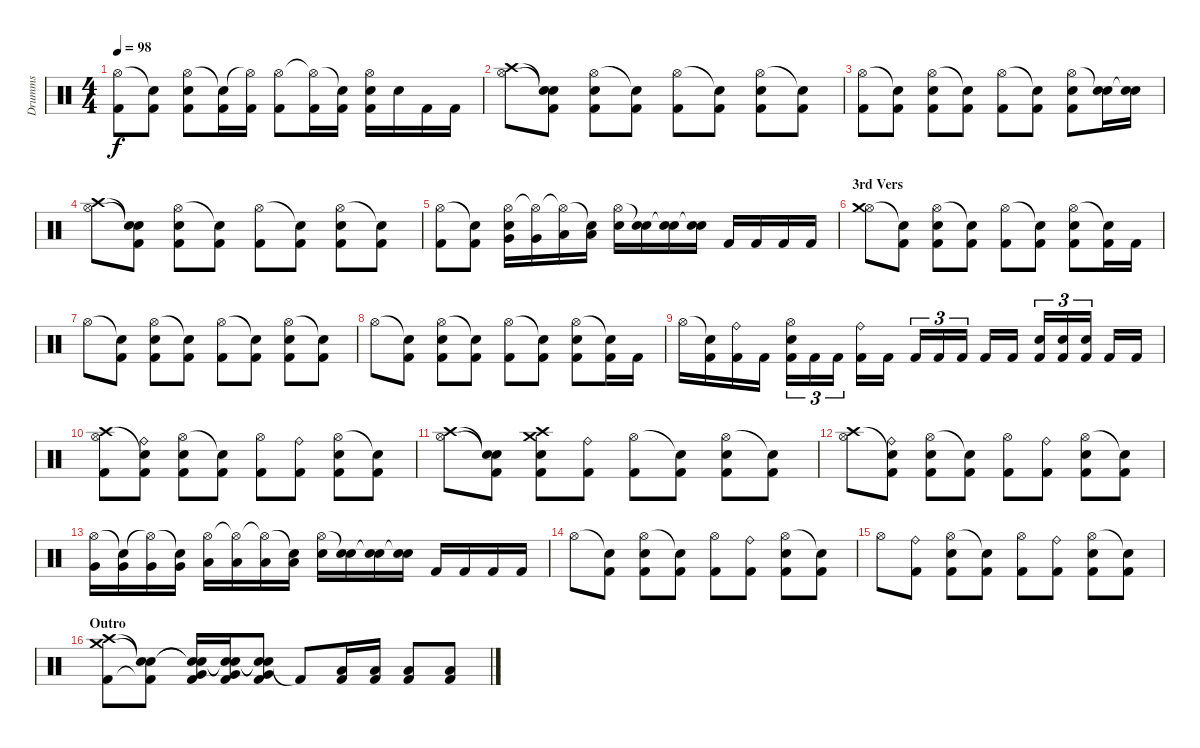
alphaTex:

\track ("Drumms" "Drumms") {instrument percussion}
\staff {score}
\articulation defaults
\ts (4 4)
\tempo 98
\clef neutral
\ks c
("Hi-Hat (open)" "Kick (hit) 2").8{dy f volume 13} ("Snare (hit)"{t} "Kick (hit) 2").8 ("Hi-Hat (open)" "Electric Snare (hit)" "Kick (hit) 2").8 ("Snare (hit)"{t} "Kick (hit) 2").16 ("Hi-Hat (open)"{t} "Kick (hit) 2").16 ("Hi-Hat (open)" "Kick (hit) 2").8 ("Hi-Hat (open)"{t} "Kick (hit) 2").16 ("Snare (hit)"{t} "Kick (hit) 2").16 ("Hi-Hat (open)" "Electric Snare (hit)" "Kick (hit) 2").16 "Electric Snare (hit)".16 "Kick (hit) 2".16 "Kick (hit) 2".16 |
("Hi-Hat (open)" "Crash high (hit)").8 ("Snare (hit)"{t} "Snare (hit)"{t} "Kick (hit) 2").8 ("Hi-Hat (open)" "Electric Snare (hit)" "Kick (hit) 2").8 ("Snare (hit)"{t} "Kick (hit) 2").8 ("Hi-Hat (open)" "Kick (hit) 2").8 ("Snare (hit)"{t} "Kick (hit) 2").8 ("Hi-Hat (open)" "Electric Snare (hit)" "Kick (hit) 2").8 ("Snare (hit)"{t} "Kick (hit) 2").8 |
("Hi-Hat (open)" "Kick (hit) 2").8{volume 13} ("Snare (hit)"{t} "Kick (hit) 2").8 ("Hi-Hat (open)" "Electric Snare (hit)" "Kick (hit) 2").8 ("Snare (hit)"{t} "Kick (hit) 2").8 ("Hi-Hat (open)" "Kick (hit) 2").8 ("Snare (hit)"{t} "Kick (hit) 2").8 ("Hi-Hat (open)" "Electric Snare (hit)" "Kick (hit) 2").8 ("Snare (hit)"{t} "Electric Snare (hit)").16 ("Snare (hit)"{t} "Electric Snare (hit)").16 |
("Hi-Hat (open)" "Crash high (hit)").8 ("Snare (hit)"{t} "Snare (hit)"{t} "Kick (hit) 2").8 ("Hi-Hat (open)" "Electric Snare (hit)" "Kick (hit) 2").8 ("Snare (hit)"{t} "Kick (hit) 2").8 ("Hi-Hat (open)" "Kick (hit) 2").8 ("Snare (hit)"{t} "Kick (hit) 2").8 ("Hi-Hat (open)" "Electric Snare (hit)" "Kick (hit) 2").8 ("Snare (hit)"{t} "Kick (hit) 2").8 |
("Hi-Hat (open)" "Kick (hit) 2").8{volume 13} ("Snare (hit)"{t} "Kick (hit) 2").8 ("Hi-Hat (open)" "Electric Snare (hit)" "Very Low Tom (hit)").16 ("Hi-Hat (open)"{t} "Very Low Tom (hit)").16 ("Hi-Hat (open)"{t} "Low Tom (hit)").16 ("Snare (hit)"{t} "Low Tom (hit)").16 ("Hi-Hat (open)" "Electric Snare (hit)").16 ("Snare (hit)"{t} "Electric Snare (hit)").16 ("Snare (hit)"{t} "Snare (hit) 2").16 ("Snare (hit)"{t} "Snare (hit) 2").16 "Kick (hit) 2".16 "Kick (hit) 2".16 "Kick (hit) 2".16 "Kick (hit) 2".16 |
\section ("" "3rd Vers")
("Hi-Hat (open)" "Crash medium (hit)").8 ("Snare (hit)"{t} "Kick (hit) 2").8 ("Hi-Hat (open)" "Electric Snare (hit)" "Kick (hit) 2").8 ("Snare (hit)"{t} "Kick (hit) 2").8 ("Hi-Hat (open)" "Kick (hit) 2").8 ("Snare (hit)"{t} "Kick (hit) 2").8 ("Hi-Hat (open)" "Electric Snare (hit)" "Kick (hit) 2").8 ("Snare (hit)"{t} "Kick (hit) 2").16 "Kick (hit) 2".16 |
"Hi-Hat (open)".8{volume 13} ("Snare (hit)"{t} "Kick (hit) 2").8 ("Hi-Hat (open)" "Electric Snare (hit)" "Kick (hit) 2").8 ("Snare (hit)"{t} "Kick (hit) 2").8 ("Hi-Hat (open)" "Kick (hit) 2").8 ("Snare (hit)"{t} "Kick (hit) 2").8 ("Hi-Hat (open)" "Electric Snare (hit)" "Kick (hit) 2").8 ("Snare (hit)"{t} "Kick (hit) 2").8 |
"Hi-Hat (open)".8 ("Snare (hit)"{t} "Kick (hit) 2").8 ("Hi-Hat (open)" "Electric Snare (hit)" "Kick (hit) 2").8 ("Snare (hit)"{t} "Kick (hit) 2").8 ("Hi-Hat (open)" "Kick (hit) 2").8 ("Snare (hit)"{t} "Kick (hit) 2").8 ("Hi-Hat (open)" "Electric Snare (hit)" "Kick (hit) 2").8 ("Snare (hit)"{t} "Kick (hit) 2").16 "Kick (hit) 2".16 |
"Hi-Hat (open)".16{volume 13} ("Snare (hit)"{t} "Kick (hit) 2").16 ("Ride (bell)" "Kick (hit) 2").16 "Kick (hit) 2".16 ("Hi-Hat (open)" "Electric Snare (hit)" "Kick (hit) 2").16{tu (3 2)} "Kick (hit) 2".16{tu (3 2)} "Kick (hit) 2".16{tu (3 2)} ("Ride (bell)" "Kick (hit) 2").16 "Kick (hit) 2".16 "Kick (hit) 2".16{tu (3 2)} "Kick (hit) 2".16{tu (3 2)} "Kick (hit) 2".16{tu (3 2)} "Kick (hit) 2".16 "Kick (hit) 2".16 ("Electric Snare (hit)" "Kick (hit) 2").16{tu (3 2)} ("Electric Snare (hit)" "Kick (hit) 2").16{tu (3 2)} ("Electric Snare (hit)" "Kick (hit) 2").16{tu (3 2)} "Kick (hit) 2".16 "Kick (hit) 2".16 |
("Hi-Hat (open)" "Crash high (hit)" "Kick (hit) 2").8 ("Ride (bell)" "Snare (hit)"{t} "Kick (hit) 2").8 ("Hi-Hat (open)" "Electric Snare (hit)" "Kick (hit) 2").8 ("Snare (hit)"{t} "Kick (hit) 2").8 ("Hi-Hat (open)" "Kick (hit) 2").8 ("Ride (bell)" "Kick (hit) 2").8 ("Hi-Hat (open)" "Electric Snare (hit)" "Kick (hit) 2").8 ("Snare (hit)"{t} "Kick (hit) 2").8 |
("Hi-Hat (open)" "Crash high (hit)").8 ("Snare (hit)"{t} "Snare (hit)"{t} "Kick (hit) 2").8 ("Crash high (hit)" "Electric Snare (hit)" "Kick (hit) 2" "Crash medium (hit)").8 ("Ride (bell)" "Kick (hit) 2").8 ("Hi-Hat (open)" "Kick (hit) 2").8 ("Snare (hit)"{t} "Kick (hit) 2").8 ("Hi-Hat (open)" "Electric Snare (hit)" "Kick (hit) 2").8 ("Snare (hit)"{t} "Kick (hit) 2").8 |
("Hi-Hat (open)" "Crash high (hit)").8 ("Ride (bell)" "Snare (hit)"{t} "Kick (hit) 2").8 ("Hi-Hat (open)" "Electric Snare (hit)" "Kick (hit) 2").8 ("Snare (hit)"{t} "Kick (hit) 2").8 ("Hi-Hat (open)" "Kick (hit) 2").8 ("Ride (bell)" "Kick (hit) 2").8 ("Hi-Hat (open)" "Electric Snare (hit)" "Kick (hit) 2").8 ("Snare (hit)"{t} "Kick (hit) 2").8 |
("Hi-Hat (open)" "Very Low Tom (hit)").16{volume 13} ("Snare (hit)"{t} "Very Low Tom (hit)").16 ("Hi-Hat (open)"{t} "Very Low Tom (hit)").16 ("Snare (hit)"{t} "Very Low Tom (hit)").16 ("Hi-Hat (open)" "Low Tom (hit)").16 ("Hi-Hat (open)"{t} "Low Tom (hit)").16 ("Hi-Hat (open)"{t} "Low Tom (hit)").16 ("Snare (hit)"{t} "Low Tom (hit)").16 ("Hi-Hat (open)" "Electric Snare (hit)").16 ("Snare (hit)"{t} "Electric Snare (hit)").16 ("Snare (hit)"{t} "Snare (hit) 2").16 ("Snare (hit)"{t} "Snare (hit) 2").16 "Kick (hit) 2".16 "Kick (hit) 2".16 "Kick (hit) 2".16 "Kick (hit) 2".16 |
"Hi-Hat (open)".8{volume 13} ("Snare (hit)"{t} "Kick (hit) 2").8 ("Hi-Hat (open)" "Electric Snare (hit)" "Kick (hit) 2").8 ("Snare (hit)"{t} "Kick (hit) 2").8 ("Hi-Hat (open)" "Kick (hit) 2").8 ("Ride (bell)" "Kick (hit) 2").8 ("Hi-Hat (open)" "Electric Snare (hit)" "Kick (hit) 2").8 ("Snare (hit)"{t} "Kick (hit) 2").8 |
"Hi-Hat (open)".8{volume 13} ("Ride (bell)" "Kick (hit) 2").8 ("Hi-Hat (open)" "Electric Snare (hit)" "Kick (hit) 2").8 ("Snare (hit)"{t} "Kick (hit) 2").8 ("Hi-Hat (open)" "Kick (hit) 2").8 ("Ride (bell)" "Kick (hit) 2").8 ("Hi-Hat (open)" "Electric Snare (hit)" "Kick (hit) 2").8 ("Snare (hit)"{t} "Kick (hit) 2").8 |
\section ("" "Outro")
("Crash high (hit)" "Crash medium (hit)" "Kick (hit) 2").8 ("Snare (hit)"{t} "Snare (hit)"{t} "Kick (hit) 2"{t}).8 ("Snare (hit)"{t} "Snare (hit) 2"{t} "Kick (hit) 2" "Very Low Tom (hit)").16 ("Snare (hit)"{t} "Snare (hit)"{t} "Kick (hit) 2" "Very Low Tom (hit)").16 ("Snare (hit)"{t} "Snare (hit)"{t} "Kick (hit) 2" "Very Low Tom (hit)").8 "Kick (hit) 2"{t}.8 ("Kick (hit) 2" "Low Tom (hit)").16 ("Kick (hit) 2" "Low Tom (hit)").16 ("Kick (hit) 2" "Low Tom (hit)").8 ("Kick (hit) 2" "Low Tom (hit)").8
